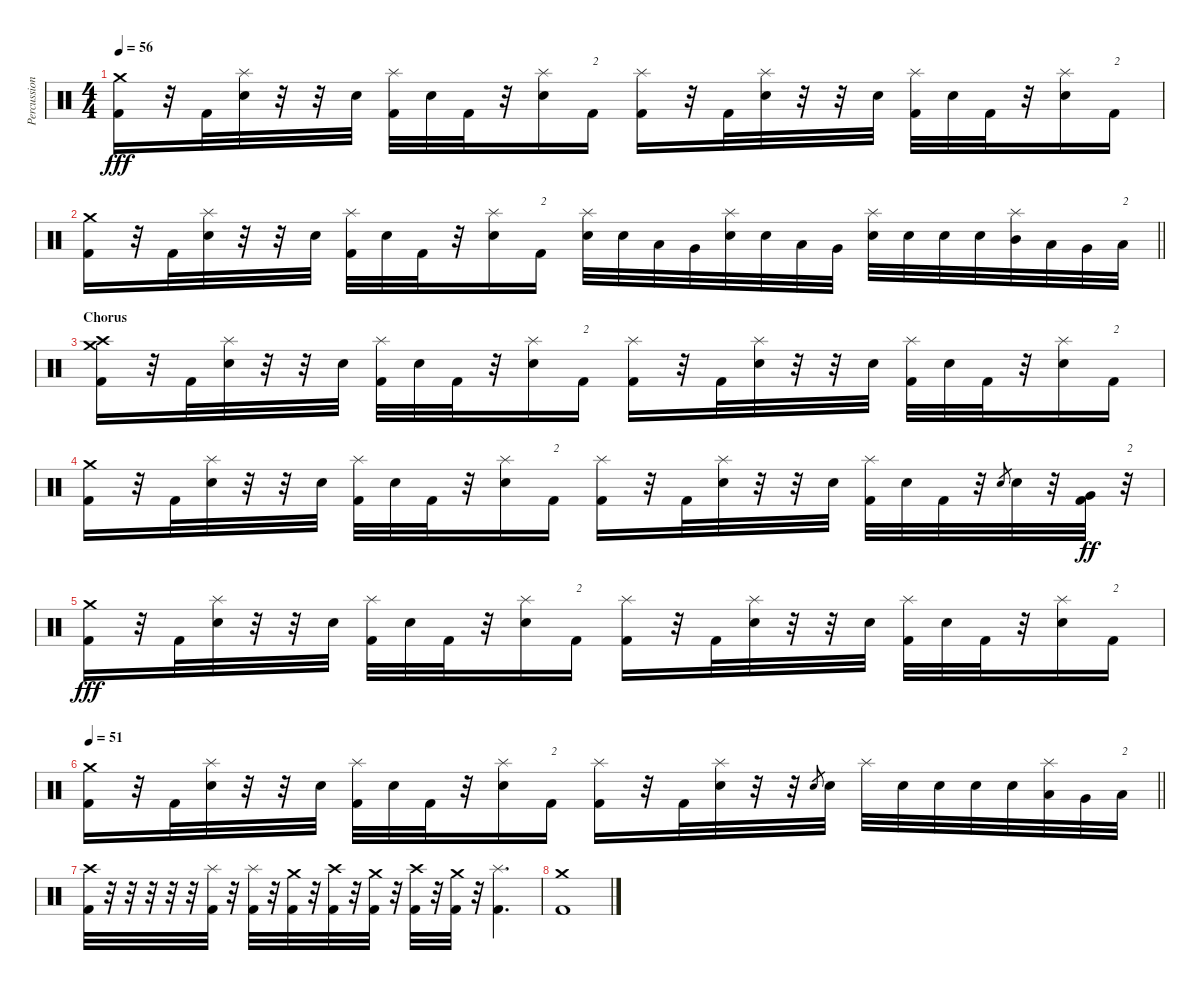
\track ("Percussion" "Percussion") {instrument percussion}
\staff {score}
\articulation defaults
\ts (4 4)
\tempo 56
\clef neutral
\ks c
("Crash medium (hit)" "Kick (hit) 2").16{dy fff} r.32 "Kick (hit) 2".32 ("Splash (hit)" "Electric Snare (hit)").32 r.32 r.32 "Electric Snare (hit)".32 ("Splash (hit)" "Kick (hit) 2").32 "Electric Snare (hit)".32 "Kick (hit) 2".32 r.32 ("Splash (hit)" "Electric Snare (hit)").16 "Kick (hit) 2".16{txt "2"} ("Splash (hit)" "Kick (hit) 2").16 r.32 "Kick (hit) 2".32 ("Splash (hit)" "Electric Snare (hit)").32 r.32 r.32 "Electric Snare (hit)".32 ("Splash (hit)" "Kick (hit) 2").32 "Electric Snare (hit)".32 "Kick (hit) 2".32 r.32 ("Splash (hit)" "Electric Snare (hit)").16 "Kick (hit) 2".16{txt "2"} |
\barLineRight lightlight
("Crash medium (hit)" "Kick (hit) 2").16 r.32 "Kick (hit) 2".32 ("Splash (hit)" "Electric Snare (hit)").32 r.32 r.32 "Electric Snare (hit)".32 ("Splash (hit)" "Kick (hit) 2").32 "Electric Snare (hit)".32 "Kick (hit) 2".32 r.32 ("Splash (hit)" "Electric Snare (hit)").16 "Kick (hit) 2".16{txt "2"} ("Splash (hit)" "Electric Snare (hit)").32 "Electric Snare (hit)".32 "Low Tom (hit)".32 "Very Low Tom (hit)".32 ("Splash (hit)" "Electric Snare (hit)").32 "Electric Snare (hit)".32 "Low Tom (hit)".32 "Very Low Tom (hit)".32 ("Splash (hit)" "Electric Snare (hit)").32 "Electric Snare (hit)".32 "Electric Snare (hit)".32 "Electric Snare (hit)".32 ("Splash (hit)" "Mid Tom (hit)").32 "Low Tom (hit)".32 "Very Low Tom (hit)".32 "Low Floor Tom (hit)".32{txt "2"} |
\section ("" "Chorus")
("Crash medium (hit)" "Crash high (hit)" "Kick (hit) 2").16 r.32 "Kick (hit) 2".32 ("Splash (hit)" "Electric Snare (hit)").32 r.32 r.32 "Electric Snare (hit)".32 ("Splash (hit)" "Kick (hit) 2").32 "Electric Snare (hit)".32 "Kick (hit) 2".32 r.32 ("Splash (hit)" "Electric Snare (hit)").16 "Kick (hit) 2".16{txt "2"} ("Splash (hit)" "Kick (hit) 2").16 r.32 "Kick (hit) 2".32 ("Splash (hit)" "Electric Snare (hit)").32 r.32 r.32 "Electric Snare (hit)".32 ("Splash (hit)" "Kick (hit) 2").32 "Electric Snare (hit)".32 "Kick (hit) 2".32 r.32 ("Splash (hit)" "Electric Snare (hit)").16 "Kick (hit) 2".16{txt "2"} |
("Crash medium (hit)" "Kick (hit) 2").16 r.32 "Kick (hit) 2".32 ("Splash (hit)" "Electric Snare (hit)").32 r.32 r.32 "Electric Snare (hit)".32 ("Splash (hit)" "Kick (hit) 2").32 "Electric Snare (hit)".32 "Kick (hit) 2".32 r.32 ("Splash (hit)" "Electric Snare (hit)").16 "Kick (hit) 2".16{txt "2"} ("Splash (hit)" "Kick (hit) 2").16 r.32 "Kick (hit) 2".32 ("Splash (hit)" "Electric Snare (hit)").32 r.32 r.32 "Electric Snare (hit)".32 ("Splash (hit)" "Kick (hit) 2").32 "Electric Snare (hit)".32 "Kick (hit) 2".32 r.32 "Electric Snare (hit)".8{gr} "Electric Snare (hit)".32 r.32 ("Very Low Tom (hit)" "Kick (hit) 2").32{dy ff} r.32{txt "2"} |
("Crash medium (hit)" "Kick (hit) 2").16{dy fff} r.32 "Kick (hit) 2".32 ("Splash (hit)" "Electric Snare (hit)").32 r.32 r.32 "Electric Snare (hit)".32 ("Splash (hit)" "Kick (hit) 2").32 "Electric Snare (hit)".32 "Kick (hit) 2".32 r.32 ("Splash (hit)" "Electric Snare (hit)").16 "Kick (hit) 2".16{txt "2"} ("Splash (hit)" "Kick (hit) 2").16 r.32 "Kick (hit) 2".32 ("Splash (hit)" "Electric Snare (hit)").32 r.32 r.32 "Electric Snare (hit)".32 ("Splash (hit)" "Kick (hit) 2").32 "Electric Snare (hit)".32 "Kick (hit) 2".32 r.32 ("Splash (hit)" "Electric Snare (hit)").16 "Kick (hit) 2".16{txt "2"} |
\tempo 51
\barLineRight lightlight
("Crash medium (hit)" "Kick (hit) 2").16 r.32 "Kick (hit) 2".32 ("Splash (hit)" "Electric Snare (hit)").32 r.32 r.32 "Electric Snare (hit)".32 ("Splash (hit)" "Kick (hit) 2").32 "Electric Snare (hit)".32 "Kick (hit) 2".32 r.32 ("Splash (hit)" "Electric Snare (hit)").16 "Kick (hit) 2".16{txt "2"} ("Splash (hit)" "Kick (hit) 2").16 r.32 "Kick (hit) 2".32 ("Splash (hit)" "Electric Snare (hit)").32 r.32 r.32 "Electric Snare (hit)".8{gr} "Electric Snare (hit)".32 "Splash (hit)".32 "Electric Snare (hit)".32 "Electric Snare (hit)".32 "Electric Snare (hit)".32 "Electric Snare (hit)".32 ("Splash (hit)" "Low Tom (hit)").32 "Very Low Tom (hit)".32 "Low Floor Tom (hit)".32{txt "2"} |
("Crash high (hit)" "Kick (hit) 2").32 r.32 r.32 r.32 r.32 r.32 ("Splash (hit)" "Kick (hit) 2").32 r.32 ("Splash (hit)" "Kick (hit) 2").32 r.32 ("Crash medium (hit)" "Kick (hit) 2").32 r.32 ("Crash high (hit)" "Kick (hit) 2").32 r.32 ("Crash medium (hit)" "Kick (hit) 2").32 r.32 ("Crash high (hit)" "Kick (hit) 2").32 r.32 ("Crash medium (hit)" "Kick (hit) 2").32 r.32 ("Splash (hit)" "Kick (hit) 2").4{d} |
("Crash medium (hit)" "Kick (hit) 2").1
